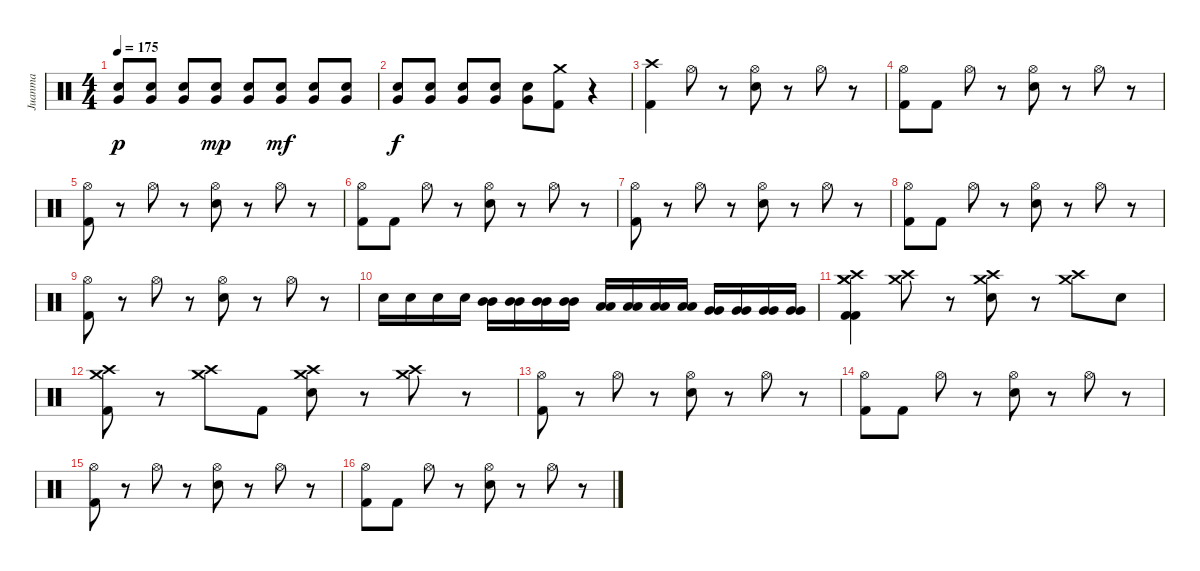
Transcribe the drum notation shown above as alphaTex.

\track ("Juanma" "Juanma") {instrument percussion}
\staff {score}
\articulation defaults
\ts (4 4)
\tempo 175
\clef neutral
\ks c
("Very Low Tom (hit)" "Electric Snare (hit)").8{dy p} ("Very Low Tom (hit)" "Electric Snare (hit)").8 ("Very Low Tom (hit)" "Electric Snare (hit)").8 ("Very Low Tom (hit)" "Electric Snare (hit)").8{dy mp} ("Very Low Tom (hit)" "Electric Snare (hit)").8 ("Very Low Tom (hit)" "Electric Snare (hit)").8{dy mf} ("Very Low Tom (hit)" "Electric Snare (hit)").8 ("Very Low Tom (hit)" "Electric Snare (hit)").8 |
("Very Low Tom (hit)" "Electric Snare (hit)").8{dy f} ("Very Low Tom (hit)" "Electric Snare (hit)").8 ("Very Low Tom (hit)" "Electric Snare (hit)").8 ("Very Low Tom (hit)" "Electric Snare (hit)").8 ("Very Low Tom (hit)" "Electric Snare (hit)").8 ("Crash medium (hit)" "Kick (hit) 2").8 r.4 |
("Crash high (hit)" "Kick (hit) 2").4 "Hi-Hat (open)".8 r.8 ("Hi-Hat (open)" "Electric Snare (hit)").8 r.8 "Hi-Hat (open)".8 r.8 |
("Hi-Hat (open)" "Kick (hit) 2").8 "Kick (hit) 2".8 "Hi-Hat (open)".8 r.8 ("Hi-Hat (open)" "Electric Snare (hit)").8 r.8 "Hi-Hat (open)".8 r.8 |
("Hi-Hat (open)" "Kick (hit) 2").8 r.8 "Hi-Hat (open)".8 r.8 ("Hi-Hat (open)" "Electric Snare (hit)").8 r.8 "Hi-Hat (open)".8 r.8 |
("Hi-Hat (open)" "Kick (hit) 2").8 "Kick (hit) 2".8 "Hi-Hat (open)".8 r.8 ("Hi-Hat (open)" "Electric Snare (hit)").8 r.8 "Hi-Hat (open)".8 r.8 |
("Hi-Hat (open)" "Kick (hit) 2").8 r.8 "Hi-Hat (open)".8 r.8 ("Hi-Hat (open)" "Electric Snare (hit)").8 r.8 "Hi-Hat (open)".8 r.8 |
("Hi-Hat (open)" "Kick (hit) 2").8 "Kick (hit) 2".8 "Hi-Hat (open)".8 r.8 ("Hi-Hat (open)" "Electric Snare (hit)").8 r.8 "Hi-Hat (open)".8 r.8 |
("Hi-Hat (open)" "Kick (hit) 2").8 r.8 "Hi-Hat (open)".8 r.8 ("Hi-Hat (open)" "Electric Snare (hit)").8 r.8 "Hi-Hat (open)".8 r.8 |
"Electric Snare (hit)".16{balance 5} "Electric Snare (hit)".16 "Electric Snare (hit)".16 "Electric Snare (hit)".16 ("Mid Tom (hit)" "Mid Tom (hit)").16{balance 6} ("Mid Tom (hit)" "Mid Tom (hit)").16 ("Mid Tom (hit)" "Mid Tom (hit)").16 ("Mid Tom (hit)" "Mid Tom (hit)").16 ("Low Tom (hit)" "Low Tom (hit)").16{balance 10} ("Low Tom (hit)" "Low Tom (hit)").16 ("Low Tom (hit)" "Low Tom (hit)").16 ("Low Tom (hit)" "Low Tom (hit)").16 ("Very Low Tom (hit)" "Very Low Tom (hit)").16{balance 11} ("Very Low Tom (hit)" "Very Low Tom (hit)").16 ("Very Low Tom (hit)" "Very Low Tom (hit)").16 ("Very Low Tom (hit)" "Very Low Tom (hit)").16 |
("Crash medium (hit)" "Crash medium (hit)" "Crash high (hit)" "Kick (hit) 2" "Kick (hit) 2").4{balance 8} ("Crash high (hit)" "Crash medium (hit)").8 r.8 ("Crash high (hit)" "Crash medium (hit)" "Electric Snare (hit)").8 r.8 ("Crash high (hit)" "Crash medium (hit)").8 "Electric Snare (hit)".8 |
("Crash high (hit)" "Crash medium (hit)" "Kick (hit) 2").8 r.8 ("Crash high (hit)" "Crash medium (hit)").8 "Kick (hit) 2".8 ("Crash high (hit)" "Crash medium (hit)" "Electric Snare (hit)").8 r.8 ("Crash high (hit)" "Crash medium (hit)").8 r.8 |
("Hi-Hat (open)" "Kick (hit) 2").8 r.8 "Hi-Hat (open)".8 r.8 ("Hi-Hat (open)" "Electric Snare (hit)").8 r.8 "Hi-Hat (open)".8 r.8 |
("Hi-Hat (open)" "Kick (hit) 2").8 "Kick (hit) 2".8 "Hi-Hat (open)".8 r.8 ("Hi-Hat (open)" "Electric Snare (hit)").8 r.8 "Hi-Hat (open)".8 r.8 |
("Hi-Hat (open)" "Kick (hit) 2").8 r.8 "Hi-Hat (open)".8 r.8 ("Hi-Hat (open)" "Electric Snare (hit)").8 r.8 "Hi-Hat (open)".8 r.8 |
("Hi-Hat (open)" "Kick (hit) 2").8 "Kick (hit) 2".8 "Hi-Hat (open)".8 r.8 ("Hi-Hat (open)" "Electric Snare (hit)").8 r.8 "Hi-Hat (open)".8 r.8
